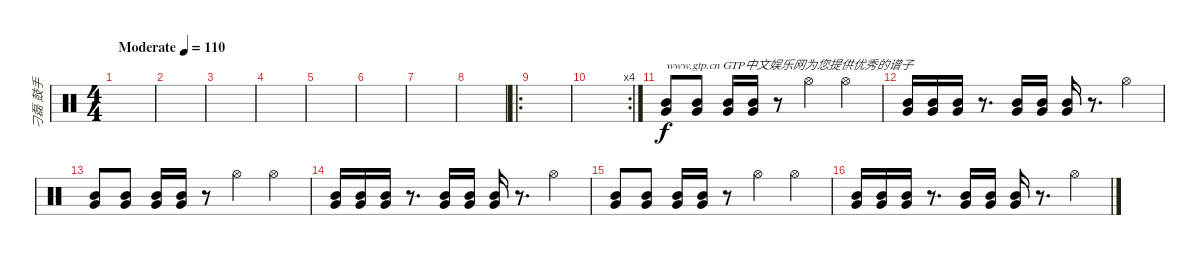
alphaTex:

\track ("刁磊 鼓手" "刁磊 鼓手") {instrument percussion}
\staff {score}
\articulation defaults
\ts (4 4)
\tempo (110 "Moderate")
\clef neutral
\ks c
|
|
|
|
|
|
|
|
\ro
|
\rc 4
|
("Mid Tom (hit)" "Very Low Tom (hit)").8{txt "www.gtp.cn GTP中文娱乐网为您提供优秀的谱子"} ("Mid Tom (hit)" "Very Low Tom (hit)").8 ("Mid Tom (hit)" "Very Low Tom (hit)").16 ("Mid Tom (hit)" "Very Low Tom (hit)").16 r.8 "Hi-Hat (open)".4 "Hi-Hat (open)".4 |
("Very Low Tom (hit)" "Mid Tom (hit)").16 ("Very Low Tom (hit)" "Mid Tom (hit)").16 ("Very Low Tom (hit)" "Mid Tom (hit)").16 r.8{d} ("Very Low Tom (hit)" "Mid Tom (hit)").16 ("Very Low Tom (hit)" "Mid Tom (hit)").16 ("Very Low Tom (hit)" "Mid Tom (hit)").16 r.8{d} "Hi-Hat (open)".4 |
("Mid Tom (hit)" "Very Low Tom (hit)").8 ("Mid Tom (hit)" "Very Low Tom (hit)").8 ("Mid Tom (hit)" "Very Low Tom (hit)").16 ("Mid Tom (hit)" "Very Low Tom (hit)").16 r.8 "Hi-Hat (open)".4 "Hi-Hat (open)".4 |
("Very Low Tom (hit)" "Mid Tom (hit)").16 ("Very Low Tom (hit)" "Mid Tom (hit)").16 ("Very Low Tom (hit)" "Mid Tom (hit)").16 r.8{d} ("Very Low Tom (hit)" "Mid Tom (hit)").16 ("Very Low Tom (hit)" "Mid Tom (hit)").16 ("Very Low Tom (hit)" "Mid Tom (hit)").16 r.8{d} "Hi-Hat (open)".4 |
("Mid Tom (hit)" "Very Low Tom (hit)").8 ("Mid Tom (hit)" "Very Low Tom (hit)").8 ("Mid Tom (hit)" "Very Low Tom (hit)").16 ("Mid Tom (hit)" "Very Low Tom (hit)").16 r.8 "Hi-Hat (open)".4 "Hi-Hat (open)".4 |
("Very Low Tom (hit)" "Mid Tom (hit)").16 ("Very Low Tom (hit)" "Mid Tom (hit)").16 ("Very Low Tom (hit)" "Mid Tom (hit)").16 r.8{d} ("Very Low Tom (hit)" "Mid Tom (hit)").16 ("Very Low Tom (hit)" "Mid Tom (hit)").16 ("Very Low Tom (hit)" "Mid Tom (hit)").16 r.8{d} "Hi-Hat (open)".4
